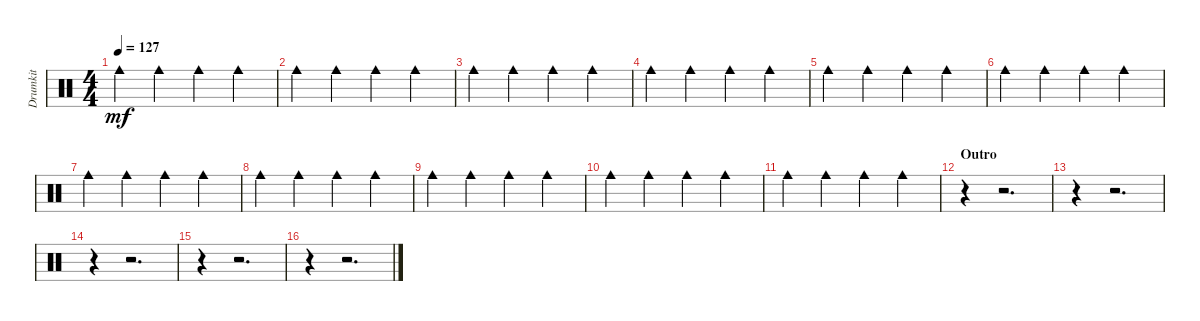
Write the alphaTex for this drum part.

\track ("Drumkit" "Drumkit") {instrument percussion}
\staff {score}
\articulation defaults
\ts (4 4)
\tempo 127
\clef neutral
\ks c "Cowbell medium (hit)".4{dy mf} "Cowbell medium (hit)".4 "Cowbell medium (hit)".4 "Cowbell medium (hit)".4
|
"Cowbell medium (hit)".4 "Cowbell medium (hit)".4 "Cowbell medium (hit)".4 "Cowbell medium (hit)".4 |
"Cowbell medium (hit)".4 "Cowbell medium (hit)".4 "Cowbell medium (hit)".4 "Cowbell medium (hit)".4 |
"Cowbell medium (hit)".4 "Cowbell medium (hit)".4 "Cowbell medium (hit)".4 "Cowbell medium (hit)".4 |
"Cowbell medium (hit)".4 "Cowbell medium (hit)".4 "Cowbell medium (hit)".4 "Cowbell medium (hit)".4 |
"Cowbell medium (hit)".4 "Cowbell medium (hit)".4 "Cowbell medium (hit)".4 "Cowbell medium (hit)".4 |
"Cowbell medium (hit)".4 "Cowbell medium (hit)".4 "Cowbell medium (hit)".4 "Cowbell medium (hit)".4 |
"Cowbell medium (hit)".4 "Cowbell medium (hit)".4 "Cowbell medium (hit)".4 "Cowbell medium (hit)".4 |
"Cowbell medium (hit)".4 "Cowbell medium (hit)".4 "Cowbell medium (hit)".4 "Cowbell medium (hit)".4 |
"Cowbell medium (hit)".4 "Cowbell medium (hit)".4 "Cowbell medium (hit)".4 "Cowbell medium (hit)".4 |
"Cowbell medium (hit)".4 "Cowbell medium (hit)".4 "Cowbell medium (hit)".4 "Cowbell medium (hit)".4 |
\section ("" "Outro")
r.4 r.2{d} |
r.4 r.2{d} |
r.4 r.2{d} |
r.4 r.2{d} |
r.4 r.2{d}
